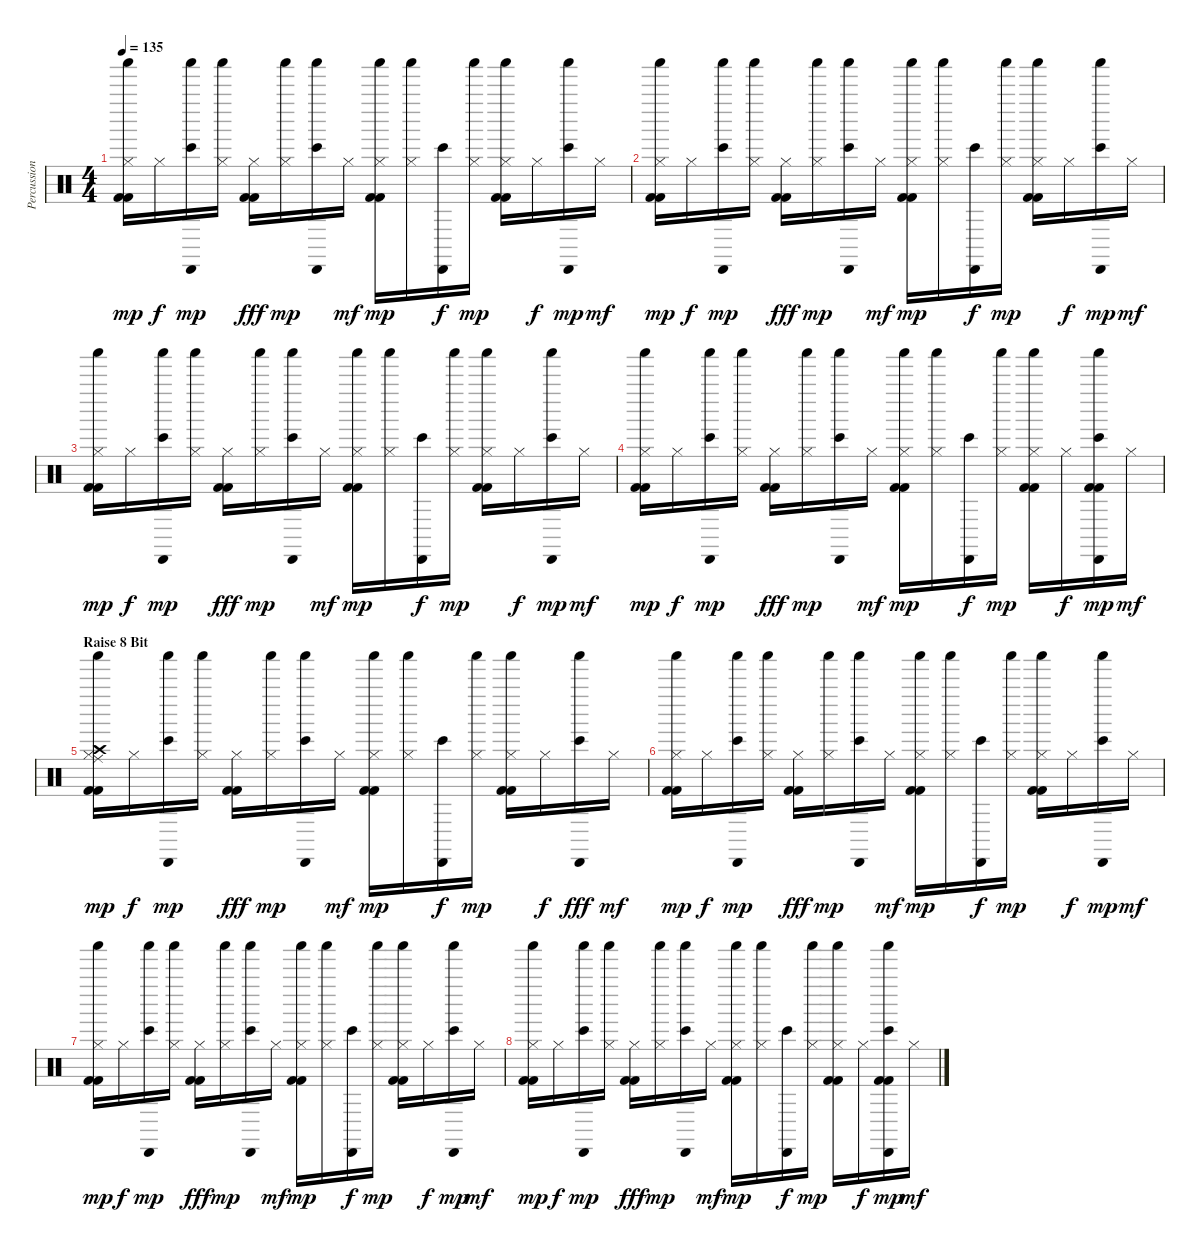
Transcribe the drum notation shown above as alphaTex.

\track ("Percussion" "Percussion") {instrument percussion}
\staff {score}
\articulation defaults
\ts (4 4)
\tempo 135
\clef neutral
\ks c
("Hi-Hat (closed)" "Kick (hit) 2" "Kick (hit) 2" "Shaker (hit)").16{dy mp} "Hi-Hat (closed)".16{dy f} ("Cabasa (hit)" "Bongo High (hit)" "Shaker (hit)").16{dy mp} ("Hi-Hat (closed)" "Shaker (hit)").16 ("Hi-Hat (closed)" "Kick (hit) 2" "Kick (hit) 2").16{dy fff} ("Hi-Hat (closed)" "Shaker (hit)").16{dy mp} ("Cabasa (hit)" "Bongo High (hit)" "Shaker (hit)").16 "Hi-Hat (closed)".16{dy mf} ("Hi-Hat (closed)" "Kick (hit) 2" "Kick (hit) 2" "Shaker (hit)").16{dy mp} ("Hi-Hat (closed)" "Shaker (hit)").16 ("Cabasa (hit)" "Bongo High (hit)").16{dy f} ("Hi-Hat (closed)" "Shaker (hit)").16{dy mp} ("Hi-Hat (closed)" "Kick (hit) 2" "Kick (hit) 2" "Shaker (hit)").16 "Hi-Hat (closed)".16{dy f} ("Cabasa (hit)" "Bongo High (hit)" "Shaker (hit)").16{dy mp} "Hi-Hat (closed)".16{dy mf} |
("Hi-Hat (closed)" "Kick (hit) 2" "Kick (hit) 2" "Shaker (hit)").16{dy mp} "Hi-Hat (closed)".16{dy f} ("Cabasa (hit)" "Bongo High (hit)" "Shaker (hit)").16{dy mp} ("Hi-Hat (closed)" "Shaker (hit)").16 ("Hi-Hat (closed)" "Kick (hit) 2" "Kick (hit) 2").16{dy fff} ("Hi-Hat (closed)" "Shaker (hit)").16{dy mp} ("Cabasa (hit)" "Bongo High (hit)" "Shaker (hit)").16 "Hi-Hat (closed)".16{dy mf} ("Hi-Hat (closed)" "Kick (hit) 2" "Kick (hit) 2" "Shaker (hit)").16{dy mp} ("Hi-Hat (closed)" "Shaker (hit)").16 ("Cabasa (hit)" "Bongo High (hit)").16{dy f} ("Hi-Hat (closed)" "Shaker (hit)").16{dy mp} ("Hi-Hat (closed)" "Kick (hit) 2" "Kick (hit) 2" "Shaker (hit)").16 "Hi-Hat (closed)".16{dy f} ("Cabasa (hit)" "Bongo High (hit)" "Shaker (hit)").16{dy mp} "Hi-Hat (closed)".16{dy mf} |
("Hi-Hat (closed)" "Kick (hit) 2" "Kick (hit) 2" "Shaker (hit)").16{dy mp} "Hi-Hat (closed)".16{dy f} ("Cabasa (hit)" "Bongo High (hit)" "Shaker (hit)").16{dy mp} ("Hi-Hat (closed)" "Shaker (hit)").16 ("Hi-Hat (closed)" "Kick (hit) 2" "Kick (hit) 2").16{dy fff} ("Hi-Hat (closed)" "Shaker (hit)").16{dy mp} ("Cabasa (hit)" "Bongo High (hit)" "Shaker (hit)").16 "Hi-Hat (closed)".16{dy mf} ("Hi-Hat (closed)" "Kick (hit) 2" "Kick (hit) 2" "Shaker (hit)").16{dy mp} ("Hi-Hat (closed)" "Shaker (hit)").16 ("Cabasa (hit)" "Bongo High (hit)").16{dy f} ("Hi-Hat (closed)" "Shaker (hit)").16{dy mp} ("Hi-Hat (closed)" "Kick (hit) 2" "Kick (hit) 2" "Shaker (hit)").16 "Hi-Hat (closed)".16{dy f} ("Cabasa (hit)" "Bongo High (hit)" "Shaker (hit)").16{dy mp} "Hi-Hat (closed)".16{dy mf} |
("Hi-Hat (closed)" "Kick (hit) 2" "Kick (hit) 2" "Shaker (hit)").16{dy mp} "Hi-Hat (closed)".16{dy f} ("Cabasa (hit)" "Bongo High (hit)" "Shaker (hit)").16{dy mp} ("Hi-Hat (closed)" "Shaker (hit)").16 ("Hi-Hat (closed)" "Kick (hit) 2" "Kick (hit) 2").16{dy fff} ("Hi-Hat (closed)" "Shaker (hit)").16{dy mp} ("Cabasa (hit)" "Bongo High (hit)" "Shaker (hit)").16 "Hi-Hat (closed)".16{dy mf} ("Hi-Hat (closed)" "Kick (hit) 2" "Kick (hit) 2" "Shaker (hit)").16{dy mp} ("Hi-Hat (closed)" "Shaker (hit)").16 ("Cabasa (hit)" "Bongo High (hit)").16{dy f} ("Hi-Hat (closed)" "Shaker (hit)").16{dy mp} ("Hi-Hat (closed)" "Kick (hit) 2" "Kick (hit) 2" "Shaker (hit)").16 "Hi-Hat (closed)".16{dy f} ("Cabasa (hit)" "Bongo High (hit)" "Kick (hit) 2" "Kick (hit) 2" "Shaker (hit)").16{dy mp} "Hi-Hat (closed)".16{dy mf} |
\section ("" "Raise 8 Bit")
("Ride (middle)" "Hi-Hat (closed)" "Crash high (hit)" "Kick (hit) 2" "Kick (hit) 2" "Shaker (hit)").16{dy mp} "Hi-Hat (closed)".16{dy f} ("Cabasa (hit)" "Bongo High (hit)" "Shaker (hit)").16{dy mp} ("Hi-Hat (closed)" "Shaker (hit)").16 ("Hi-Hat (closed)" "Kick (hit) 2" "Kick (hit) 2").16{dy fff} ("Hi-Hat (closed)" "Shaker (hit)").16{dy mp} ("Cabasa (hit)" "Bongo High (hit)" "Shaker (hit)").16 "Hi-Hat (closed)".16{dy mf} ("Hi-Hat (closed)" "Kick (hit) 2" "Kick (hit) 2" "Shaker (hit)").16{dy mp} ("Hi-Hat (closed)" "Shaker (hit)").16 ("Cabasa (hit)" "Bongo High (hit)").16{dy f} ("Hi-Hat (closed)" "Shaker (hit)").16{dy mp} ("Hi-Hat (closed)" "Kick (hit) 2" "Kick (hit) 2" "Shaker (hit)").16 "Hi-Hat (closed)".16{dy f} ("Cabasa (hit)" "Bongo High (hit)" "Shaker (hit)").16{dy fff} "Hi-Hat (closed)".16{dy mf} |
("Hi-Hat (closed)" "Kick (hit) 2" "Kick (hit) 2" "Shaker (hit)").16{dy mp} "Hi-Hat (closed)".16{dy f} ("Cabasa (hit)" "Bongo High (hit)" "Shaker (hit)").16{dy mp} ("Hi-Hat (closed)" "Shaker (hit)").16 ("Hi-Hat (closed)" "Kick (hit) 2" "Kick (hit) 2").16{dy fff} ("Hi-Hat (closed)" "Shaker (hit)").16{dy mp} ("Cabasa (hit)" "Bongo High (hit)" "Shaker (hit)").16 "Hi-Hat (closed)".16{dy mf} ("Hi-Hat (closed)" "Kick (hit) 2" "Kick (hit) 2" "Shaker (hit)").16{dy mp} ("Hi-Hat (closed)" "Shaker (hit)").16 ("Cabasa (hit)" "Bongo High (hit)").16{dy f} ("Hi-Hat (closed)" "Shaker (hit)").16{dy mp} ("Hi-Hat (closed)" "Kick (hit) 2" "Kick (hit) 2" "Shaker (hit)").16 "Hi-Hat (closed)".16{dy f} ("Cabasa (hit)" "Bongo High (hit)" "Shaker (hit)").16{dy mp} "Hi-Hat (closed)".16{dy mf} |
("Hi-Hat (closed)" "Kick (hit) 2" "Kick (hit) 2" "Shaker (hit)").16{dy mp} "Hi-Hat (closed)".16{dy f} ("Cabasa (hit)" "Bongo High (hit)" "Shaker (hit)").16{dy mp} ("Hi-Hat (closed)" "Shaker (hit)").16 ("Hi-Hat (closed)" "Kick (hit) 2" "Kick (hit) 2").16{dy fff} ("Hi-Hat (closed)" "Shaker (hit)").16{dy mp} ("Cabasa (hit)" "Bongo High (hit)" "Shaker (hit)").16 "Hi-Hat (closed)".16{dy mf} ("Hi-Hat (closed)" "Kick (hit) 2" "Kick (hit) 2" "Shaker (hit)").16{dy mp} ("Hi-Hat (closed)" "Shaker (hit)").16 ("Cabasa (hit)" "Bongo High (hit)").16{dy f} ("Hi-Hat (closed)" "Shaker (hit)").16{dy mp} ("Hi-Hat (closed)" "Kick (hit) 2" "Kick (hit) 2" "Shaker (hit)").16 "Hi-Hat (closed)".16{dy f} ("Cabasa (hit)" "Bongo High (hit)" "Shaker (hit)").16{dy mp} "Hi-Hat (closed)".16{dy mf} |
("Hi-Hat (closed)" "Kick (hit) 2" "Kick (hit) 2" "Shaker (hit)").16{dy mp} "Hi-Hat (closed)".16{dy f} ("Cabasa (hit)" "Bongo High (hit)" "Shaker (hit)").16{dy mp} ("Hi-Hat (closed)" "Shaker (hit)").16 ("Hi-Hat (closed)" "Kick (hit) 2" "Kick (hit) 2").16{dy fff} ("Hi-Hat (closed)" "Shaker (hit)").16{dy mp} ("Cabasa (hit)" "Bongo High (hit)" "Shaker (hit)").16 "Hi-Hat (closed)".16{dy mf} ("Hi-Hat (closed)" "Kick (hit) 2" "Kick (hit) 2" "Shaker (hit)").16{dy mp} ("Hi-Hat (closed)" "Shaker (hit)").16 ("Cabasa (hit)" "Bongo High (hit)").16{dy f} ("Hi-Hat (closed)" "Shaker (hit)").16{dy mp} ("Hi-Hat (closed)" "Kick (hit) 2" "Kick (hit) 2" "Shaker (hit)").16 "Hi-Hat (closed)".16{dy f} ("Cabasa (hit)" "Bongo High (hit)" "Kick (hit) 2" "Kick (hit) 2" "Shaker (hit)").16{dy mp} "Hi-Hat (closed)".16{dy mf}
